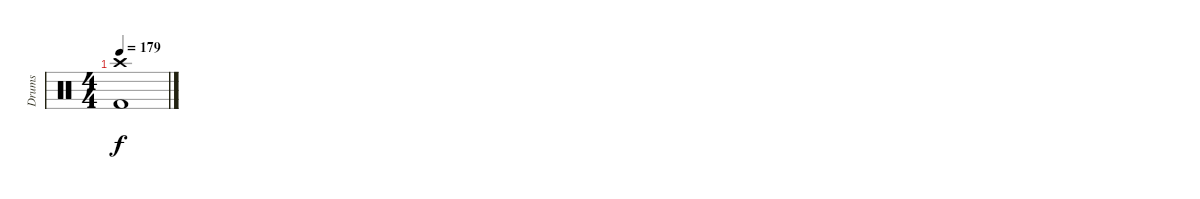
\track ("Drums" "Drums") {instrument percussion}
\staff {score}
\articulation defaults
\ts (4 4)
\tempo 179
\clef neutral
\ks c
("Crash high (hit)" "Kick (hit) 2").1{dy f}
